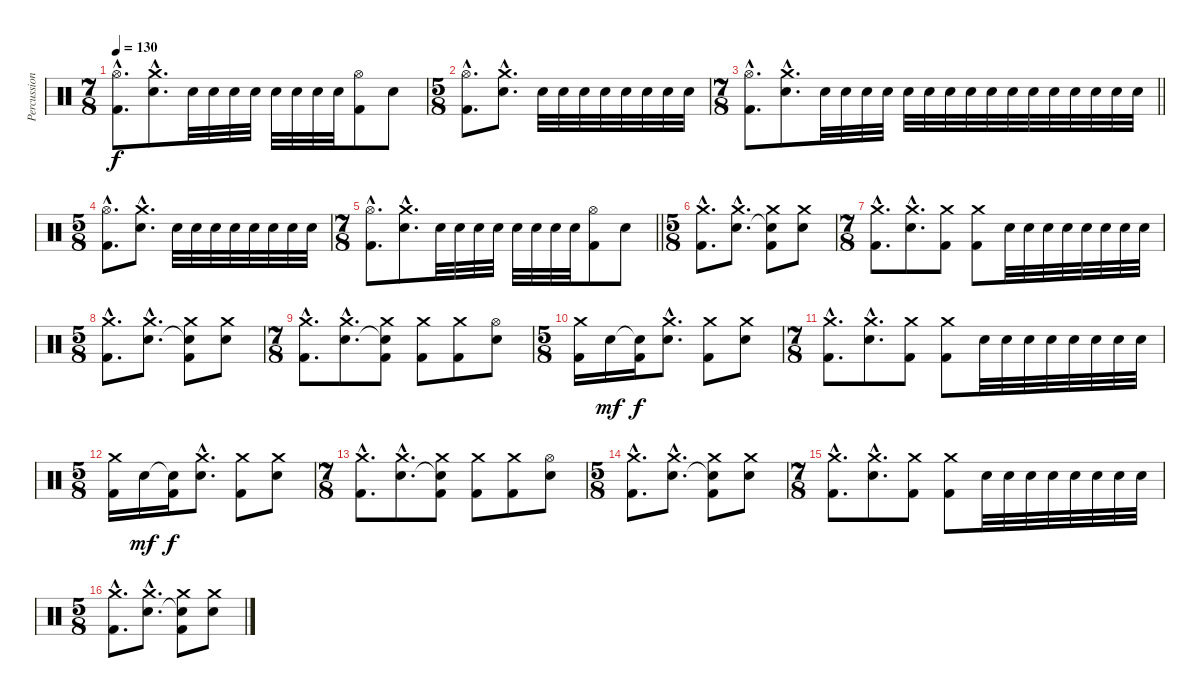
\track ("Percussion" "Percussion") {instrument percussion}
\staff {score}
\articulation defaults
\ts (7 8)
\tempo 130
\clef neutral
\ks c
("Hi-Hat (open)"{hac} "Kick (hit) 2"{hac}).8{d dy f} ("Crash medium (hit)"{hac} "Electric Snare (hit)"{hac}).8{d} "Electric Snare (hit)".32 "Electric Snare (hit)".32 "Electric Snare (hit)".32 "Electric Snare (hit)".32 "Electric Snare (hit)".32 "Electric Snare (hit)".32 "Electric Snare (hit)".32 "Electric Snare (hit)".32 ("Hi-Hat (open)" "Kick (hit) 2").8 "Electric Snare (hit)".8 |
\ts (5 8)
("Hi-Hat (open)"{hac} "Kick (hit) 2"{hac}).8{d} ("Crash medium (hit)"{hac} "Electric Snare (hit)"{hac}).8{d} "Electric Snare (hit)".32 "Electric Snare (hit)".32 "Electric Snare (hit)".32 "Electric Snare (hit)".32 "Electric Snare (hit)".32 "Electric Snare (hit)".32 "Electric Snare (hit)".32 "Electric Snare (hit)".32 |
\ts (7 8)
\barLineRight lightlight
("Hi-Hat (open)"{hac} "Kick (hit) 2"{hac}).8{d} ("Crash medium (hit)"{hac} "Electric Snare (hit)"{hac}).8{d} "Electric Snare (hit)".32 "Electric Snare (hit)".32 "Electric Snare (hit)".32 "Electric Snare (hit)".32 "Electric Snare (hit)".32 "Electric Snare (hit)".32 "Electric Snare (hit)".32 "Electric Snare (hit)".32 "Electric Snare (hit)".32 "Electric Snare (hit)".32 "Electric Snare (hit)".32 "Electric Snare (hit)".32 "Electric Snare (hit)".32 "Electric Snare (hit)".32 "Electric Snare (hit)".32 "Electric Snare (hit)".32 |
\ts (5 8)
("Hi-Hat (open)"{hac} "Kick (hit) 2"{hac}).8{d} ("Crash medium (hit)"{hac} "Electric Snare (hit)"{hac}).8{d} "Electric Snare (hit)".32 "Electric Snare (hit)".32 "Electric Snare (hit)".32 "Electric Snare (hit)".32 "Electric Snare (hit)".32 "Electric Snare (hit)".32 "Electric Snare (hit)".32 "Electric Snare (hit)".32 |
\ts (7 8)
\barLineRight lightlight
("Hi-Hat (open)"{hac} "Kick (hit) 2"{hac}).8{d} ("Crash medium (hit)"{hac} "Electric Snare (hit)"{hac}).8{d} "Electric Snare (hit)".32 "Electric Snare (hit)".32 "Electric Snare (hit)".32 "Electric Snare (hit)".32 "Electric Snare (hit)".32 "Electric Snare (hit)".32 "Electric Snare (hit)".32 "Electric Snare (hit)".32 ("Hi-Hat (open)" "Kick (hit) 2").8 "Electric Snare (hit)".8 |
\ts (5 8)
("Crash medium (hit)"{hac} "Kick (hit) 2"{hac}).8{d} ("Crash medium (hit)"{hac} "Electric Snare (hit)"{hac}).8{d} ("Crash medium (hit)" "Electric Snare (hit)"{t} "Kick (hit) 2").8 ("Crash medium (hit)" "Electric Snare (hit)").8 |
\ts (7 8)
("Crash medium (hit)"{hac} "Kick (hit) 2"{hac}).8{d} ("Crash medium (hit)"{hac} "Electric Snare (hit)"{hac}).8{d} ("Crash medium (hit)" "Kick (hit) 2").8 ("Crash medium (hit)" "Kick (hit) 2").8 "Electric Snare (hit)".32 "Electric Snare (hit)".32 "Electric Snare (hit)".32 "Electric Snare (hit)".32 "Electric Snare (hit)".32 "Electric Snare (hit)".32 "Electric Snare (hit)".32 "Electric Snare (hit)".32 |
\ts (5 8)
("Crash medium (hit)"{hac} "Kick (hit) 2"{hac}).8{d} ("Crash medium (hit)"{hac} "Electric Snare (hit)"{hac}).8{d} ("Crash medium (hit)" "Electric Snare (hit)"{t} "Kick (hit) 2").8 ("Crash medium (hit)" "Electric Snare (hit)").8 |
\ts (7 8)
("Crash medium (hit)"{hac} "Kick (hit) 2"{hac}).8{d} ("Crash medium (hit)"{hac} "Electric Snare (hit)"{hac}).8{d} ("Crash medium (hit)" "Electric Snare (hit)"{t} "Kick (hit) 2").8 ("Crash medium (hit)" "Kick (hit) 2").8 ("Kick (hit) 2" "Crash medium (hit)").8 ("Hi-Hat (open)" "Electric Snare (hit)").8 |
\ts (5 8)
("Crash medium (hit)" "Kick (hit) 2").16 "Electric Snare (hit)".16{dy mf} ("Electric Snare (hit)"{t} "Kick (hit) 2").16{dy f} ("Crash medium (hit)"{hac} "Electric Snare (hit)"{hac}).8{d} ("Crash medium (hit)" "Kick (hit) 2").8 ("Electric Snare (hit)" "Crash medium (hit)").8 |
\ts (7 8)
("Crash medium (hit)"{hac} "Kick (hit) 2"{hac}).8{d} ("Crash medium (hit)"{hac} "Electric Snare (hit)"{hac}).8{d} ("Crash medium (hit)" "Kick (hit) 2").8 ("Crash medium (hit)" "Kick (hit) 2").8 "Electric Snare (hit)".32 "Electric Snare (hit)".32 "Electric Snare (hit)".32 "Electric Snare (hit)".32 "Electric Snare (hit)".32 "Electric Snare (hit)".32 "Electric Snare (hit)".32 "Electric Snare (hit)".32 |
\ts (5 8)
("Crash medium (hit)" "Kick (hit) 2").16 "Electric Snare (hit)".16{dy mf} ("Electric Snare (hit)"{t} "Kick (hit) 2").16{dy f} ("Crash medium (hit)"{hac} "Electric Snare (hit)"{hac}).8{d} ("Crash medium (hit)" "Kick (hit) 2").8 ("Electric Snare (hit)" "Crash medium (hit)").8 |
\ts (7 8)
("Crash medium (hit)"{hac} "Kick (hit) 2"{hac}).8{d} ("Crash medium (hit)"{hac} "Electric Snare (hit)"{hac}).8{d} ("Crash medium (hit)" "Electric Snare (hit)"{t} "Kick (hit) 2").8 ("Crash medium (hit)" "Kick (hit) 2").8 ("Kick (hit) 2" "Crash medium (hit)").8 ("Hi-Hat (open)" "Electric Snare (hit)").8 |
\ts (5 8)
("Crash medium (hit)"{hac} "Kick (hit) 2"{hac}).8{d} ("Crash medium (hit)"{hac} "Electric Snare (hit)"{hac}).8{d} ("Crash medium (hit)" "Electric Snare (hit)"{t} "Kick (hit) 2").8 ("Crash medium (hit)" "Electric Snare (hit)").8 |
\ts (7 8)
("Crash medium (hit)"{hac} "Kick (hit) 2"{hac}).8{d} ("Crash medium (hit)"{hac} "Electric Snare (hit)"{hac}).8{d} ("Crash medium (hit)" "Kick (hit) 2").8 ("Crash medium (hit)" "Kick (hit) 2").8 "Electric Snare (hit)".32 "Electric Snare (hit)".32 "Electric Snare (hit)".32 "Electric Snare (hit)".32 "Electric Snare (hit)".32 "Electric Snare (hit)".32 "Electric Snare (hit)".32 "Electric Snare (hit)".32 |
\ts (5 8)
("Crash medium (hit)"{hac} "Kick (hit) 2"{hac}).8{d} ("Crash medium (hit)"{hac} "Electric Snare (hit)"{hac}).8{d} ("Crash medium (hit)" "Electric Snare (hit)"{t} "Kick (hit) 2").8 ("Crash medium (hit)" "Electric Snare (hit)").8
